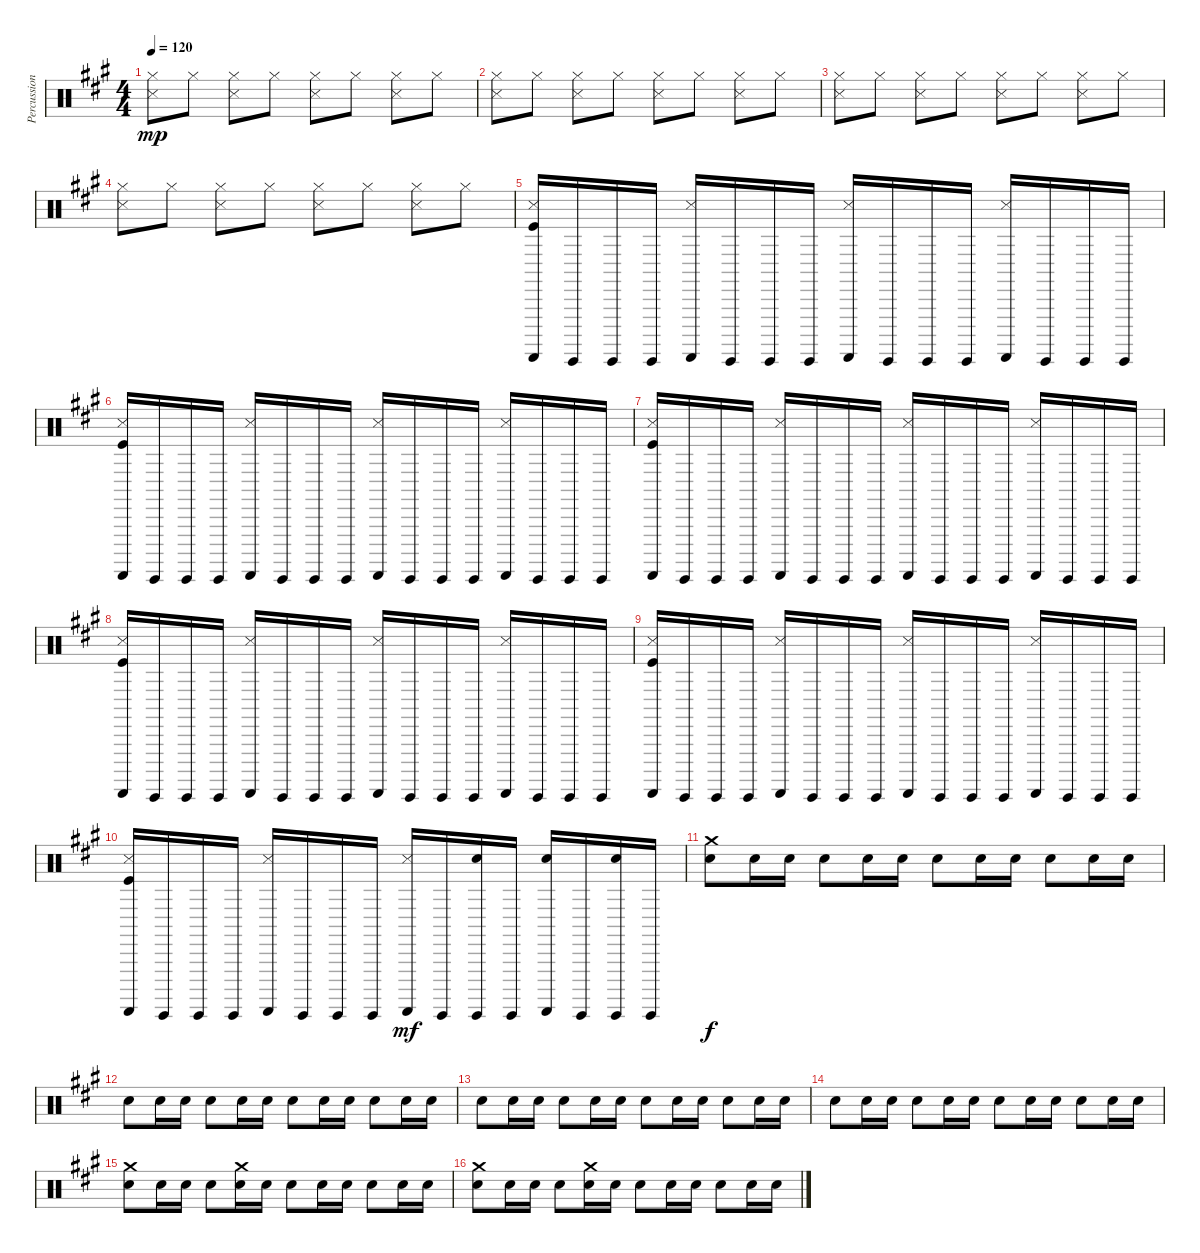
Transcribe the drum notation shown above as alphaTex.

\track ("Percussion" "Percussion") {instrument percussion}
\staff {score}
\articulation defaults
\ts (4 4)
\tempo 120
\clef neutral
\ks a
("Hi-Hat (closed)" "Snare (side stick) 3").8{dy mp} "Hi-Hat (closed)".8 ("Hi-Hat (closed)" "Snare (side stick) 3").8 "Hi-Hat (closed)".8 ("Hi-Hat (closed)" "Snare (side stick) 3").8 "Hi-Hat (closed)".8 ("Hi-Hat (closed)" "Snare (side stick) 3").8 "Hi-Hat (closed)".8 |
("Hi-Hat (closed)" "Snare (side stick) 3").8 "Hi-Hat (closed)".8 ("Hi-Hat (closed)" "Snare (side stick) 3").8 "Hi-Hat (closed)".8 ("Hi-Hat (closed)" "Snare (side stick) 3").8 "Hi-Hat (closed)".8 ("Hi-Hat (closed)" "Snare (side stick) 3").8 "Hi-Hat (closed)".8 |
("Hi-Hat (closed)" "Snare (side stick) 3").8 "Hi-Hat (closed)".8 ("Hi-Hat (closed)" "Snare (side stick) 3").8 "Hi-Hat (closed)".8 ("Hi-Hat (closed)" "Snare (side stick) 3").8 "Hi-Hat (closed)".8 ("Hi-Hat (closed)" "Snare (side stick) 3").8 "Hi-Hat (closed)".8 |
("Hi-Hat (closed)" "Snare (side stick) 3").8 "Hi-Hat (closed)".8 ("Hi-Hat (closed)" "Snare (side stick) 3").8 "Hi-Hat (closed)".8 ("Hi-Hat (closed)" "Snare (side stick) 3").8 "Hi-Hat (closed)".8 ("Hi-Hat (closed)" "Snare (side stick) 3").8 "Hi-Hat (closed)".8 |
("Guiro (scrap-return)" "Snare (side stick) 3" "Kick (hit)").16 "Guiro (hit)".16 "Guiro (hit)".16 "Guiro (hit)".16 ("Guiro (scrap-return)" "Snare (side stick) 3").16 "Guiro (hit)".16 "Guiro (hit)".16 "Guiro (hit)".16 ("Guiro (scrap-return)" "Snare (side stick) 3").16 "Guiro (hit)".16 "Guiro (hit)".16 "Guiro (hit)".16 ("Guiro (scrap-return)" "Snare (side stick) 3").16 "Guiro (hit)".16 "Guiro (hit)".16 "Guiro (hit)".16 |
("Guiro (scrap-return)" "Snare (side stick) 3" "Kick (hit)").16 "Guiro (hit)".16 "Guiro (hit)".16 "Guiro (hit)".16 ("Guiro (scrap-return)" "Snare (side stick) 3").16 "Guiro (hit)".16 "Guiro (hit)".16 "Guiro (hit)".16 ("Guiro (scrap-return)" "Snare (side stick) 3").16 "Guiro (hit)".16 "Guiro (hit)".16 "Guiro (hit)".16 ("Guiro (scrap-return)" "Snare (side stick) 3").16 "Guiro (hit)".16 "Guiro (hit)".16 "Guiro (hit)".16 |
("Guiro (scrap-return)" "Snare (side stick) 3" "Kick (hit)").16 "Guiro (hit)".16 "Guiro (hit)".16 "Guiro (hit)".16 ("Guiro (scrap-return)" "Snare (side stick) 3").16 "Guiro (hit)".16 "Guiro (hit)".16 "Guiro (hit)".16 ("Guiro (scrap-return)" "Snare (side stick) 3").16 "Guiro (hit)".16 "Guiro (hit)".16 "Guiro (hit)".16 ("Guiro (scrap-return)" "Snare (side stick) 3").16 "Guiro (hit)".16 "Guiro (hit)".16 "Guiro (hit)".16 |
("Guiro (scrap-return)" "Snare (side stick) 3" "Kick (hit)").16 "Guiro (hit)".16 "Guiro (hit)".16 "Guiro (hit)".16 ("Guiro (scrap-return)" "Snare (side stick) 3").16 "Guiro (hit)".16 "Guiro (hit)".16 "Guiro (hit)".16 ("Guiro (scrap-return)" "Snare (side stick) 3").16 "Guiro (hit)".16 "Guiro (hit)".16 "Guiro (hit)".16 ("Guiro (scrap-return)" "Snare (side stick) 3").16 "Guiro (hit)".16 "Guiro (hit)".16 "Guiro (hit)".16 |
("Guiro (scrap-return)" "Snare (side stick) 3" "Kick (hit)").16 "Guiro (hit)".16 "Guiro (hit)".16 "Guiro (hit)".16 ("Guiro (scrap-return)" "Snare (side stick) 3").16 "Guiro (hit)".16 "Guiro (hit)".16 "Guiro (hit)".16 ("Guiro (scrap-return)" "Snare (side stick) 3").16 "Guiro (hit)".16 "Guiro (hit)".16 "Guiro (hit)".16 ("Guiro (scrap-return)" "Snare (side stick) 3").16 "Guiro (hit)".16 "Guiro (hit)".16 "Guiro (hit)".16 |
("Guiro (scrap-return)" "Snare (side stick) 3" "Kick (hit)").16 "Guiro (hit)".16 "Guiro (hit)".16 "Guiro (hit)".16 ("Guiro (scrap-return)" "Snare (side stick) 3").16 "Guiro (hit)".16 "Guiro (hit)".16 "Guiro (hit)".16 ("Guiro (scrap-return)" "Snare (side stick) 3").16{dy mf} "Guiro (hit)".16 ("Guiro (hit)" "Snare (hit) 2").16 "Guiro (hit)".16 ("Guiro (scrap-return)" "Snare (hit) 2").16 "Guiro (hit)".16 ("Guiro (hit)" "Snare (hit) 2").16 "Guiro (hit)".16 |
("Crash medium (hit)" "Snare (hit) 2").8{dy f} "Snare (hit) 2".16 "Snare (hit) 2".16 "Snare (hit) 2".8 "Snare (hit) 2".16 "Snare (hit) 2".16 "Snare (hit) 2".8 "Snare (hit) 2".16 "Snare (hit) 2".16 "Snare (hit) 2".8 "Snare (hit) 2".16 "Snare (hit) 2".16 |
"Snare (hit) 2".8 "Snare (hit) 2".16 "Snare (hit) 2".16 "Snare (hit) 2".8 "Snare (hit) 2".16 "Snare (hit) 2".16 "Snare (hit) 2".8 "Snare (hit) 2".16 "Snare (hit) 2".16 "Snare (hit) 2".8 "Snare (hit) 2".16 "Snare (hit) 2".16 |
"Snare (hit) 2".8 "Snare (hit) 2".16 "Snare (hit) 2".16 "Snare (hit) 2".8 "Snare (hit) 2".16 "Snare (hit) 2".16 "Snare (hit) 2".8 "Snare (hit) 2".16 "Snare (hit) 2".16 "Snare (hit) 2".8 "Snare (hit) 2".16 "Snare (hit) 2".16 |
"Snare (hit) 2".8 "Snare (hit) 2".16 "Snare (hit) 2".16 "Snare (hit) 2".8 "Snare (hit) 2".16 "Snare (hit) 2".16 "Snare (hit) 2".8 "Snare (hit) 2".16 "Snare (hit) 2".16 "Snare (hit) 2".8 "Snare (hit) 2".16 "Snare (hit) 2".16 |
("Crash medium (hit)" "Snare (hit) 2").8 "Snare (hit) 2".16 "Snare (hit) 2".16 "Snare (hit) 2".8 ("Crash medium (hit)" "Snare (hit) 2").16 "Snare (hit) 2".16 "Snare (hit) 2".8 "Snare (hit) 2".16 "Snare (hit) 2".16 "Snare (hit) 2".8 "Snare (hit) 2".16 "Snare (hit) 2".16 |
("Crash medium (hit)" "Snare (hit) 2").8 "Snare (hit) 2".16 "Snare (hit) 2".16 "Snare (hit) 2".8 ("Crash medium (hit)" "Snare (hit) 2").16 "Snare (hit) 2".16 "Snare (hit) 2".8 "Snare (hit) 2".16 "Snare (hit) 2".16 "Snare (hit) 2".8 "Snare (hit) 2".16 "Snare (hit) 2".16
